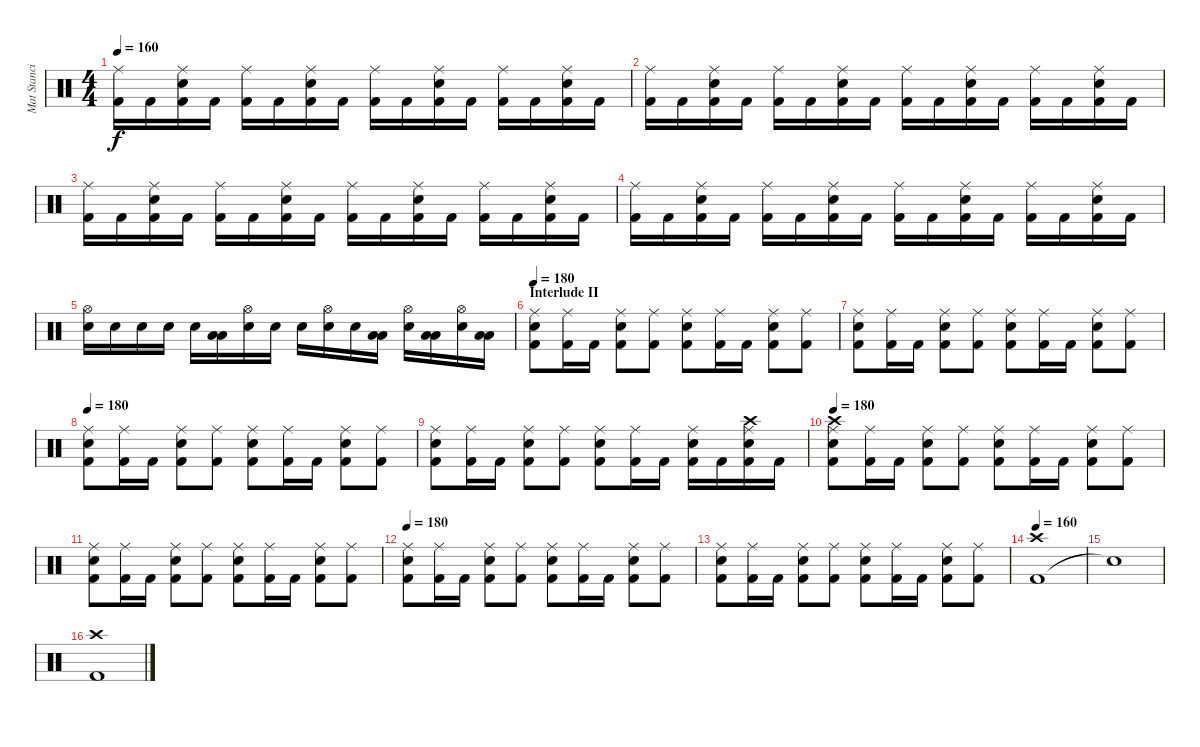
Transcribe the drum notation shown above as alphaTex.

\track ("Mat Stancioiu" "Mat Stanci") {instrument percussion}
\staff {score}
\articulation defaults
\ts (4 4)
\tempo 160
\clef neutral
\ks c
("Kick (hit) 2" "Ride (middle)").16{dy f} "Kick (hit) 2".16 ("Electric Snare (hit)" "Kick (hit) 2" "Ride (middle)").16 "Kick (hit) 2".16 ("Kick (hit) 2" "Ride (middle)").16 "Kick (hit) 2".16 ("Electric Snare (hit)" "Kick (hit) 2" "Ride (middle)").16 "Kick (hit) 2".16 ("Kick (hit) 2" "Ride (middle)").16 "Kick (hit) 2".16 ("Electric Snare (hit)" "Kick (hit) 2" "Ride (middle)").16 "Kick (hit) 2".16 ("Kick (hit) 2" "Ride (middle)").16 "Kick (hit) 2".16 ("Electric Snare (hit)" "Kick (hit) 2" "Ride (middle)").16 "Kick (hit) 2".16 |
("Kick (hit) 2" "Ride (middle)").16 "Kick (hit) 2".16 ("Electric Snare (hit)" "Kick (hit) 2" "Ride (middle)").16 "Kick (hit) 2".16 ("Kick (hit) 2" "Ride (middle)").16 "Kick (hit) 2".16 ("Electric Snare (hit)" "Kick (hit) 2" "Ride (middle)").16 "Kick (hit) 2".16 ("Kick (hit) 2" "Ride (middle)").16 "Kick (hit) 2".16 ("Electric Snare (hit)" "Kick (hit) 2" "Ride (middle)").16 "Kick (hit) 2".16 ("Kick (hit) 2" "Ride (middle)").16 "Kick (hit) 2".16 ("Electric Snare (hit)" "Kick (hit) 2" "Ride (middle)").16 "Kick (hit) 2".16 |
("Kick (hit) 2" "Ride (middle)").16 "Kick (hit) 2".16 ("Electric Snare (hit)" "Kick (hit) 2" "Ride (middle)").16 "Kick (hit) 2".16 ("Kick (hit) 2" "Ride (middle)").16 "Kick (hit) 2".16 ("Electric Snare (hit)" "Kick (hit) 2" "Ride (middle)").16 "Kick (hit) 2".16 ("Kick (hit) 2" "Ride (middle)").16 "Kick (hit) 2".16 ("Electric Snare (hit)" "Kick (hit) 2" "Ride (middle)").16 "Kick (hit) 2".16 ("Kick (hit) 2" "Ride (middle)").16 "Kick (hit) 2".16 ("Electric Snare (hit)" "Kick (hit) 2" "Ride (middle)").16 "Kick (hit) 2".16 |
("Kick (hit) 2" "Ride (middle)").16 "Kick (hit) 2".16 ("Electric Snare (hit)" "Kick (hit) 2" "Ride (middle)").16 "Kick (hit) 2".16 ("Kick (hit) 2" "Ride (middle)").16 "Kick (hit) 2".16 ("Electric Snare (hit)" "Kick (hit) 2" "Ride (middle)").16 "Kick (hit) 2".16 ("Kick (hit) 2" "Ride (middle)").16 "Kick (hit) 2".16 ("Electric Snare (hit)" "Kick (hit) 2" "Ride (middle)").16 "Kick (hit) 2".16 ("Kick (hit) 2" "Ride (middle)").16 "Kick (hit) 2".16 ("Electric Snare (hit)" "Kick (hit) 2" "Ride (middle)").16 "Kick (hit) 2".16 |
("Electric Snare (hit)" "Hi-Hat (open)").16 "Electric Snare (hit)".16 "Electric Snare (hit)".16 "Electric Snare (hit)".16 "Electric Snare (hit)".16 ("Low Tom (hit)" "Low Tom (hit)").16 ("Electric Snare (hit)" "Hi-Hat (open)").16 "Electric Snare (hit)".16 "Electric Snare (hit)".16 ("Electric Snare (hit)" "Hi-Hat (open)").16 "Electric Snare (hit)".16 ("Low Tom (hit)" "Low Tom (hit)").16 ("Electric Snare (hit)" "Hi-Hat (open)").16 ("Low Tom (hit)" "Low Tom (hit)").16 ("Electric Snare (hit)" "Hi-Hat (open)").16 ("Low Tom (hit)" "Low Tom (hit)").16 |
\section ("" "Interlude II")
\tempo 180
("Kick (hit) 2" "Electric Snare (hit)" "Ride (middle)").8 ("Kick (hit) 2" "Ride (middle)").16 "Kick (hit) 2".16 ("Kick (hit) 2" "Electric Snare (hit)" "Ride (middle)").8 ("Kick (hit) 2" "Ride (middle)").8 ("Kick (hit) 2" "Electric Snare (hit)" "Ride (middle)").8 ("Kick (hit) 2" "Ride (middle)").16 "Kick (hit) 2".16 ("Kick (hit) 2" "Electric Snare (hit)" "Ride (middle)").8 ("Kick (hit) 2" "Ride (middle)").8 |
("Kick (hit) 2" "Electric Snare (hit)" "Ride (middle)").8 ("Kick (hit) 2" "Ride (middle)").16 "Kick (hit) 2".16 ("Kick (hit) 2" "Electric Snare (hit)" "Ride (middle)").8 ("Kick (hit) 2" "Ride (middle)").8 ("Kick (hit) 2" "Electric Snare (hit)" "Ride (middle)").8 ("Kick (hit) 2" "Ride (middle)").16 "Kick (hit) 2".16 ("Kick (hit) 2" "Electric Snare (hit)" "Ride (middle)").8 ("Kick (hit) 2" "Ride (middle)").8 |
\tempo 180
("Kick (hit) 2" "Electric Snare (hit)" "Ride (middle)").8 ("Kick (hit) 2" "Ride (middle)").16 "Kick (hit) 2".16 ("Kick (hit) 2" "Electric Snare (hit)" "Ride (middle)").8 ("Kick (hit) 2" "Ride (middle)").8 ("Kick (hit) 2" "Electric Snare (hit)" "Ride (middle)").8 ("Kick (hit) 2" "Ride (middle)").16 "Kick (hit) 2".16 ("Kick (hit) 2" "Electric Snare (hit)" "Ride (middle)").8 ("Kick (hit) 2" "Ride (middle)").8 |
("Kick (hit) 2" "Electric Snare (hit)" "Ride (middle)").8 ("Kick (hit) 2" "Ride (middle)").16 "Kick (hit) 2".16 ("Kick (hit) 2" "Electric Snare (hit)" "Ride (middle)").8 ("Kick (hit) 2" "Ride (middle)").8 ("Kick (hit) 2" "Electric Snare (hit)" "Ride (middle)").8 ("Kick (hit) 2" "Ride (middle)").16 "Kick (hit) 2".16 ("Kick (hit) 2" "Electric Snare (hit)" "Ride (middle)").16 "Kick (hit) 2".16 ("Kick (hit) 2" "Electric Snare (hit)" "Ride (middle)" "Crash high (hit)").16 "Kick (hit) 2".16 |
\tempo 180
("Kick (hit) 2" "Electric Snare (hit)" "Ride (middle)" "Crash high (hit)").8 ("Kick (hit) 2" "Ride (middle)").16 "Kick (hit) 2".16 ("Kick (hit) 2" "Electric Snare (hit)" "Ride (middle)").8 ("Kick (hit) 2" "Ride (middle)").8 ("Kick (hit) 2" "Electric Snare (hit)" "Ride (middle)").8 ("Kick (hit) 2" "Ride (middle)").16 "Kick (hit) 2".16 ("Kick (hit) 2" "Electric Snare (hit)" "Ride (middle)").8 ("Kick (hit) 2" "Ride (middle)").8 |
("Kick (hit) 2" "Electric Snare (hit)" "Ride (middle)").8 ("Kick (hit) 2" "Ride (middle)").16 "Kick (hit) 2".16 ("Kick (hit) 2" "Electric Snare (hit)" "Ride (middle)").8 ("Kick (hit) 2" "Ride (middle)").8 ("Kick (hit) 2" "Electric Snare (hit)" "Ride (middle)").8 ("Kick (hit) 2" "Ride (middle)").16 "Kick (hit) 2".16 ("Kick (hit) 2" "Electric Snare (hit)" "Ride (middle)").8 ("Kick (hit) 2" "Ride (middle)").8 |
\tempo 180
("Kick (hit) 2" "Electric Snare (hit)" "Ride (middle)").8 ("Kick (hit) 2" "Ride (middle)").16 "Kick (hit) 2".16 ("Kick (hit) 2" "Electric Snare (hit)" "Ride (middle)").8 ("Kick (hit) 2" "Ride (middle)").8 ("Kick (hit) 2" "Electric Snare (hit)" "Ride (middle)").8 ("Kick (hit) 2" "Ride (middle)").16 "Kick (hit) 2".16 ("Kick (hit) 2" "Electric Snare (hit)" "Ride (middle)").8 ("Kick (hit) 2" "Ride (middle)").8 |
("Kick (hit) 2" "Electric Snare (hit)" "Ride (middle)").8 ("Kick (hit) 2" "Ride (middle)").16 "Kick (hit) 2".16 ("Kick (hit) 2" "Electric Snare (hit)" "Ride (middle)").8 ("Kick (hit) 2" "Ride (middle)").8 ("Kick (hit) 2" "Electric Snare (hit)" "Ride (middle)").8 ("Kick (hit) 2" "Ride (middle)").16 "Kick (hit) 2".16 ("Kick (hit) 2" "Electric Snare (hit)" "Ride (middle)").8 ("Kick (hit) 2" "Ride (middle)").8 |
\tempo 160
("Kick (hit) 2" "Crash high (hit)").1 |
"Snare (hit)"{t}.1 |
("Kick (hit) 2" "Crash high (hit)").1
